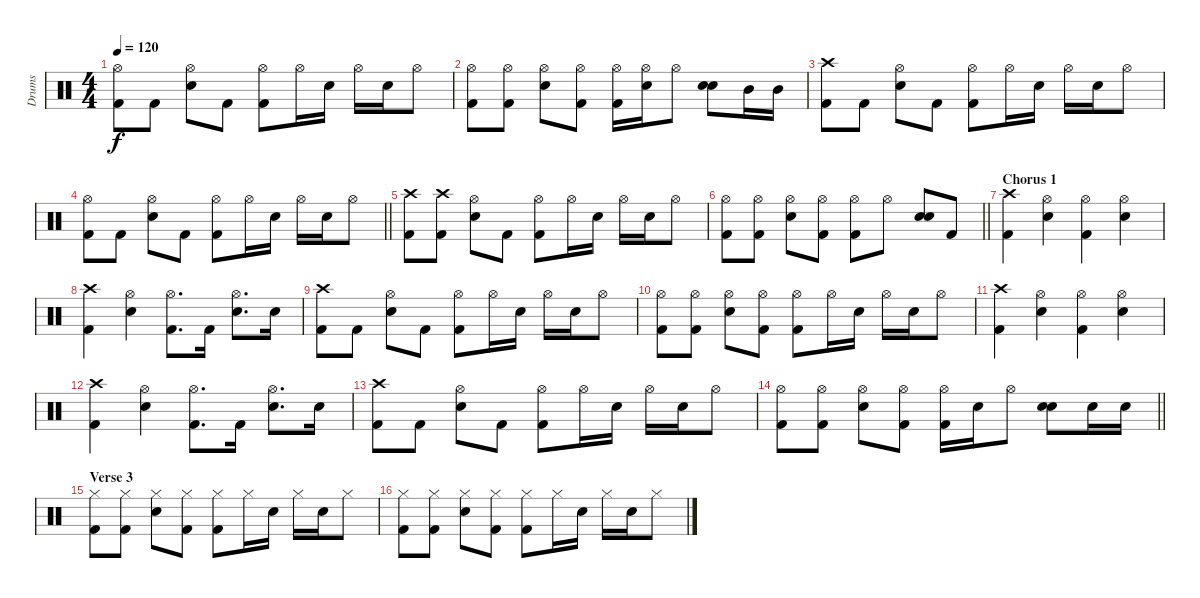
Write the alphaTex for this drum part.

\track ("Drums" "Drums") {instrument percussion}
\staff {score}
\articulation defaults
\ts (4 4)
\tempo 120
\clef neutral
\ks c
("Hi-Hat (open)" "Kick (hit) 2").8{dy f} "Kick (hit) 2".8 ("Hi-Hat (open)" "Electric Snare (hit)").8 "Kick (hit) 2".8 ("Hi-Hat (open)" "Kick (hit) 2").8 "Hi-Hat (open)".16 "Electric Snare (hit)".16 "Hi-Hat (open)".16 "Electric Snare (hit)".16 "Hi-Hat (open)".8 |
("Hi-Hat (open)" "Kick (hit) 2").8 ("Hi-Hat (open)" "Kick (hit) 2").8 ("Hi-Hat (open)" "Electric Snare (hit)").8 ("Hi-Hat (open)" "Kick (hit) 2").8 ("Hi-Hat (open)" "Kick (hit) 2").16 ("Hi-Hat (open)" "Electric Snare (hit)").16 "Hi-Hat (open)".8 ("Electric Snare (hit)" "Electric Snare (hit)").8 "Mid Tom (hit)".16 "Mid Tom (hit)".16 |
("Crash high (hit)" "Kick (hit) 2").8 "Kick (hit) 2".8 ("Hi-Hat (open)" "Electric Snare (hit)").8 "Kick (hit) 2".8 ("Hi-Hat (open)" "Kick (hit) 2").8 "Hi-Hat (open)".16 "Electric Snare (hit)".16 "Hi-Hat (open)".16 "Electric Snare (hit)".16 "Hi-Hat (open)".8 |
\barLineRight lightlight
("Hi-Hat (open)" "Kick (hit) 2").8 "Kick (hit) 2".8 ("Hi-Hat (open)" "Electric Snare (hit)").8 "Kick (hit) 2".8 ("Hi-Hat (open)" "Kick (hit) 2").8 "Hi-Hat (open)".16 "Electric Snare (hit)".16 "Hi-Hat (open)".16 "Electric Snare (hit)".16 "Hi-Hat (open)".8 |
("Crash high (hit)" "Kick (hit) 2").8 ("Crash high (hit)" "Kick (hit) 2").8 ("Hi-Hat (open)" "Electric Snare (hit)").8 "Kick (hit) 2".8 ("Hi-Hat (open)" "Kick (hit) 2").8 "Hi-Hat (open)".16 "Electric Snare (hit)".16 "Hi-Hat (open)".16 "Electric Snare (hit)".16 "Hi-Hat (open)".8 |
\barLineRight lightlight
("Hi-Hat (open)" "Kick (hit) 2").8 ("Hi-Hat (open)" "Kick (hit) 2").8 ("Hi-Hat (open)" "Electric Snare (hit)").8 ("Hi-Hat (open)" "Kick (hit) 2").8 ("Hi-Hat (open)" "Kick (hit) 2").8 "Hi-Hat (open)".8 ("Electric Snare (hit)" "Electric Snare (hit)").8 "Kick (hit) 2".8 |
\section ("" "Chorus 1")
("Crash high (hit)" "Kick (hit) 2").4 ("Hi-Hat (open)" "Electric Snare (hit)").4 ("Hi-Hat (open)" "Kick (hit) 2").4 ("Hi-Hat (open)" "Electric Snare (hit)").4 |
("Crash high (hit)" "Kick (hit) 2").4 ("Hi-Hat (open)" "Electric Snare (hit)").4 ("Hi-Hat (open)" "Kick (hit) 2").8{d} "Kick (hit) 2".16 ("Hi-Hat (open)" "Electric Snare (hit)").8{d} "Electric Snare (hit)".16 |
("Crash high (hit)" "Kick (hit) 2").8 "Kick (hit) 2".8 ("Hi-Hat (open)" "Electric Snare (hit)").8 "Kick (hit) 2".8 ("Hi-Hat (open)" "Kick (hit) 2").8 "Hi-Hat (open)".16 "Electric Snare (hit)".16 "Hi-Hat (open)".16 "Electric Snare (hit)".16 "Hi-Hat (open)".8 |
("Hi-Hat (open)" "Kick (hit) 2").8 ("Hi-Hat (open)" "Kick (hit) 2").8 ("Hi-Hat (open)" "Electric Snare (hit)").8 ("Hi-Hat (open)" "Kick (hit) 2").8 ("Hi-Hat (open)" "Kick (hit) 2").8 "Hi-Hat (open)".16 "Electric Snare (hit)".16 "Hi-Hat (open)".16 "Electric Snare (hit)".16 "Hi-Hat (open)".8 |
("Crash high (hit)" "Kick (hit) 2").4 ("Hi-Hat (open)" "Electric Snare (hit)").4 ("Hi-Hat (open)" "Kick (hit) 2").4 ("Hi-Hat (open)" "Electric Snare (hit)").4 |
("Crash high (hit)" "Kick (hit) 2").4 ("Hi-Hat (open)" "Electric Snare (hit)").4 ("Hi-Hat (open)" "Kick (hit) 2").8{d} "Kick (hit) 2".16 ("Hi-Hat (open)" "Electric Snare (hit)").8{d} "Electric Snare (hit)".16 |
("Crash high (hit)" "Kick (hit) 2").8 "Kick (hit) 2".8 ("Hi-Hat (open)" "Electric Snare (hit)").8 "Kick (hit) 2".8 ("Hi-Hat (open)" "Kick (hit) 2").8 "Hi-Hat (open)".16 "Electric Snare (hit)".16 "Hi-Hat (open)".16 "Electric Snare (hit)".16 "Hi-Hat (open)".8 |
\barLineRight lightlight
("Hi-Hat (open)" "Kick (hit) 2").8 ("Hi-Hat (open)" "Kick (hit) 2").8 ("Hi-Hat (open)" "Electric Snare (hit)").8 ("Hi-Hat (open)" "Kick (hit) 2").8 ("Hi-Hat (open)" "Kick (hit) 2").16 "Electric Snare (hit)".16 "Hi-Hat (open)".8 ("Electric Snare (hit)" "Electric Snare (hit)").8 "Electric Snare (hit)".16 "Electric Snare (hit)".16 |
\section ("" "Verse 3")
("Hi-Hat (closed)" "Kick (hit) 2").8 ("Hi-Hat (closed)" "Kick (hit) 2").8 ("Hi-Hat (closed)" "Electric Snare (hit)").8 ("Hi-Hat (closed)" "Kick (hit) 2").8 ("Hi-Hat (closed)" "Kick (hit) 2").8 "Hi-Hat (closed)".16 "Electric Snare (hit)".16 "Hi-Hat (closed)".16 "Electric Snare (hit)".16 "Hi-Hat (closed)".8 |
("Hi-Hat (closed)" "Kick (hit) 2").8 ("Hi-Hat (closed)" "Kick (hit) 2").8 ("Hi-Hat (closed)" "Electric Snare (hit)").8 ("Hi-Hat (closed)" "Kick (hit) 2").8 ("Hi-Hat (closed)" "Kick (hit) 2").8 "Hi-Hat (closed)".16 "Electric Snare (hit)".16 "Hi-Hat (closed)".16 "Electric Snare (hit)".16 "Hi-Hat (closed)".8
